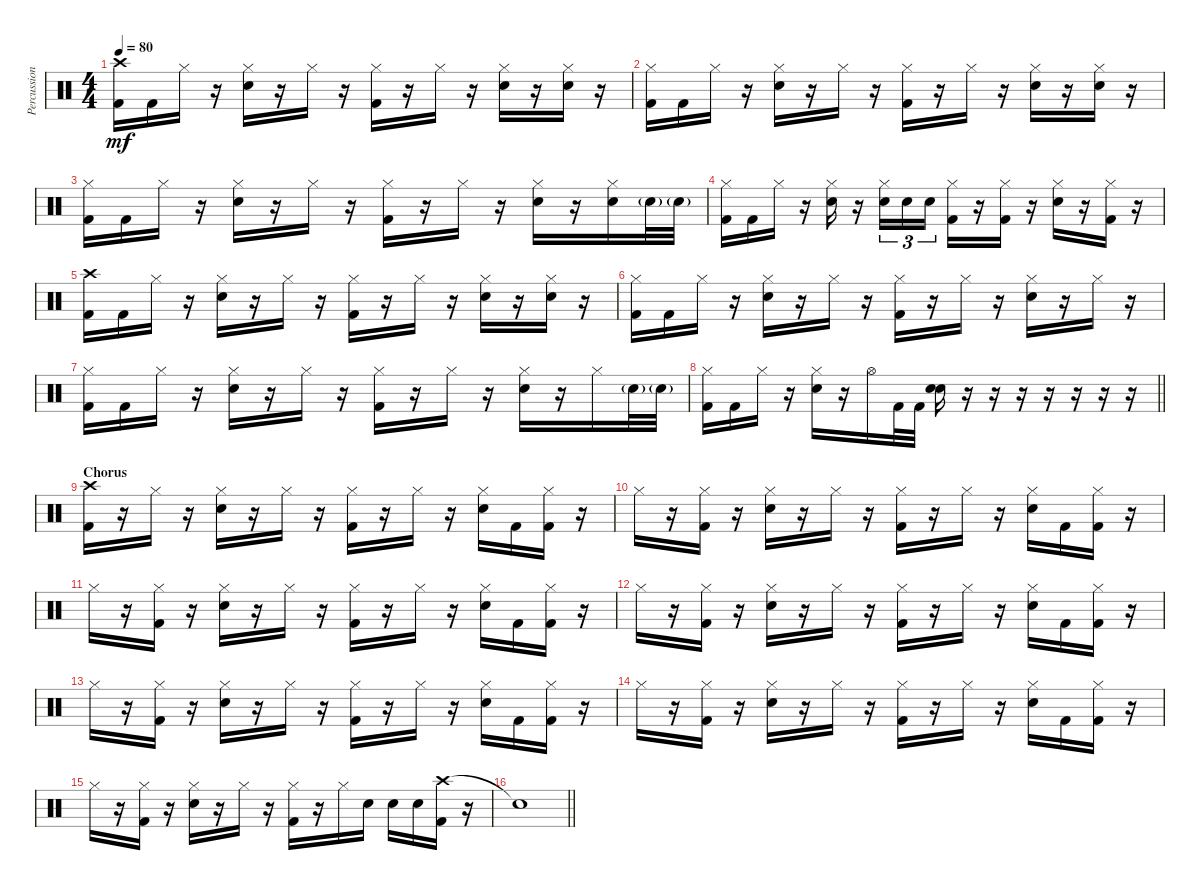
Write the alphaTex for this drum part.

\track ("Percussion" "Percussion") {instrument percussion}
\staff {score}
\articulation defaults
\ts (4 4)
\tempo 80
\clef neutral
\ks c
("Crash high (hit)" "Kick (hit) 2").16{dy mf} "Kick (hit) 2".16 "Hi-Hat (closed)".16 r.16 ("Hi-Hat (closed)" "Snare (hit) 2").16 r.16 "Hi-Hat (closed)".16 r.16 ("Hi-Hat (closed)" "Kick (hit) 2").16 r.16 "Hi-Hat (closed)".16 r.16 ("Hi-Hat (closed)" "Snare (hit) 2").16 r.16 ("Hi-Hat (closed)" "Snare (hit) 2").16 r.16 |
("Hi-Hat (closed)" "Kick (hit) 2").16 "Kick (hit) 2".16 "Hi-Hat (closed)".16 r.16 ("Hi-Hat (closed)" "Snare (hit) 2").16 r.16 "Hi-Hat (closed)".16 r.16 ("Hi-Hat (closed)" "Kick (hit) 2").16 r.16 "Hi-Hat (closed)".16 r.16 ("Hi-Hat (closed)" "Snare (hit) 2").16 r.16 ("Hi-Hat (closed)" "Snare (hit) 2").16 r.16 |
("Hi-Hat (closed)" "Kick (hit) 2").16 "Kick (hit) 2".16 "Hi-Hat (closed)".16 r.16 ("Hi-Hat (closed)" "Snare (hit) 2").16 r.16 "Hi-Hat (closed)".16 r.16 ("Hi-Hat (closed)" "Kick (hit) 2").16 r.16 "Hi-Hat (closed)".16 r.16 ("Hi-Hat (closed)" "Snare (hit) 2").16 r.16 ("Hi-Hat (closed)" "Snare (hit) 2").16 "Snare (hit) 2"{g}.32 "Snare (hit) 2"{g}.32 |
("Hi-Hat (closed)" "Kick (hit) 2").16 "Kick (hit) 2".16 "Hi-Hat (closed)".16 r.16 ("Hi-Hat (closed)" "Snare (hit) 2").16 r.16 ("Hi-Hat (closed)" "Snare (hit) 2").16{tu (3 2)} "Snare (hit) 2".16{tu (3 2)} "Snare (hit) 2".16{tu (3 2)} ("Hi-Hat (closed)" "Kick (hit) 2").16 r.16 ("Hi-Hat (closed)" "Kick (hit) 2").16 r.16 ("Hi-Hat (closed)" "Snare (hit) 2").16 r.16 ("Hi-Hat (closed)" "Kick (hit) 2").16 r.16 |
("Crash high (hit)" "Kick (hit) 2").16 "Kick (hit) 2".16 "Hi-Hat (closed)".16 r.16 ("Hi-Hat (closed)" "Snare (hit) 2").16 r.16 "Hi-Hat (closed)".16 r.16 ("Hi-Hat (closed)" "Kick (hit) 2").16 r.16 "Hi-Hat (closed)".16 r.16 ("Hi-Hat (closed)" "Snare (hit) 2").16 r.16 ("Hi-Hat (closed)" "Snare (hit) 2").16 r.16 |
("Hi-Hat (closed)" "Kick (hit) 2").16 "Kick (hit) 2".16 "Hi-Hat (closed)".16 r.16 ("Hi-Hat (closed)" "Snare (hit) 2").16 r.16 "Hi-Hat (closed)".16 r.16 ("Hi-Hat (closed)" "Kick (hit) 2").16 r.16 "Hi-Hat (closed)".16 r.16 ("Hi-Hat (closed)" "Snare (hit) 2").16 r.16 "Hi-Hat (closed)".16 r.16 |
("Hi-Hat (closed)" "Kick (hit) 2").16 "Kick (hit) 2".16 "Hi-Hat (closed)".16 r.16 ("Hi-Hat (closed)" "Snare (hit) 2").16 r.16 "Hi-Hat (closed)".16 r.16 ("Hi-Hat (closed)" "Kick (hit) 2").16 r.16 "Hi-Hat (closed)".16 r.16 ("Hi-Hat (closed)" "Snare (hit) 2").16 r.16 "Hi-Hat (closed)".16 "Snare (hit) 2"{g}.32 "Snare (hit) 2"{g}.32 |
\barLineRight lightlight
("Hi-Hat (closed)" "Kick (hit) 2").16 "Kick (hit) 2".16 "Hi-Hat (closed)".16 r.16 ("Hi-Hat (closed)" "Snare (hit) 2").16 r.16 "Hi-Hat (open)".16 "Kick (hit) 2".32 "Kick (hit) 2".32 ("Snare (hit) 2" "Snare (hit) 2").16 r.16 r.16 r.16 r.16 r.16 r.16 r.16 |
\section ("" "Chorus")
("Crash high (hit)" "Kick (hit) 2").16 r.16 "Hi-Hat (closed)".16 r.16 ("Hi-Hat (closed)" "Snare (hit) 2").16 r.16 "Hi-Hat (closed)".16 r.16 ("Hi-Hat (closed)" "Kick (hit) 2").16 r.16 "Hi-Hat (closed)".16 r.16 ("Hi-Hat (closed)" "Snare (hit) 2").16 "Kick (hit) 2".16 ("Hi-Hat (closed)" "Kick (hit) 2").16 r.16 |
"Hi-Hat (closed)".16 r.16 ("Hi-Hat (closed)" "Kick (hit) 2").16 r.16 ("Hi-Hat (closed)" "Snare (hit) 2").16 r.16 "Hi-Hat (closed)".16 r.16 ("Hi-Hat (closed)" "Kick (hit) 2").16 r.16 "Hi-Hat (closed)".16 r.16 ("Hi-Hat (closed)" "Snare (hit) 2").16 "Kick (hit) 2".16 ("Hi-Hat (closed)" "Kick (hit) 2").16 r.16 |
"Hi-Hat (closed)".16 r.16 ("Hi-Hat (closed)" "Kick (hit) 2").16 r.16 ("Hi-Hat (closed)" "Snare (hit) 2").16 r.16 "Hi-Hat (closed)".16 r.16 ("Hi-Hat (closed)" "Kick (hit) 2").16 r.16 "Hi-Hat (closed)".16 r.16 ("Hi-Hat (closed)" "Snare (hit) 2").16 "Kick (hit) 2".16 ("Hi-Hat (closed)" "Kick (hit) 2").16 r.16 |
"Hi-Hat (closed)".16 r.16 ("Hi-Hat (closed)" "Kick (hit) 2").16 r.16 ("Hi-Hat (closed)" "Snare (hit) 2").16 r.16 "Hi-Hat (closed)".16 r.16 ("Hi-Hat (closed)" "Kick (hit) 2").16 r.16 "Hi-Hat (closed)".16 r.16 ("Hi-Hat (closed)" "Snare (hit) 2").16 "Kick (hit) 2".16 ("Hi-Hat (closed)" "Kick (hit) 2").16 r.16 |
"Hi-Hat (closed)".16 r.16 ("Hi-Hat (closed)" "Kick (hit) 2").16 r.16 ("Hi-Hat (closed)" "Snare (hit) 2").16 r.16 "Hi-Hat (closed)".16 r.16 ("Hi-Hat (closed)" "Kick (hit) 2").16 r.16 "Hi-Hat (closed)".16 r.16 ("Hi-Hat (closed)" "Snare (hit) 2").16 "Kick (hit) 2".16 ("Hi-Hat (closed)" "Kick (hit) 2").16 r.16 |
"Hi-Hat (closed)".16 r.16 ("Hi-Hat (closed)" "Kick (hit) 2").16 r.16 ("Hi-Hat (closed)" "Snare (hit) 2").16 r.16 "Hi-Hat (closed)".16 r.16 ("Hi-Hat (closed)" "Kick (hit) 2").16 r.16 "Hi-Hat (closed)".16 r.16 ("Hi-Hat (closed)" "Snare (hit) 2").16 "Kick (hit) 2".16 ("Hi-Hat (closed)" "Kick (hit) 2").16 r.16 |
"Hi-Hat (closed)".16 r.16 ("Hi-Hat (closed)" "Kick (hit) 2").16 r.16 ("Hi-Hat (closed)" "Snare (hit) 2").16 r.16 "Hi-Hat (closed)".16 r.16 ("Hi-Hat (closed)" "Kick (hit) 2").16 r.16 "Hi-Hat (closed)".16 "Snare (hit) 2".16 "Snare (hit) 2".16 "Snare (hit) 2".16 ("Crash high (hit)" "Kick (hit) 2").16 r.16 |
\barLineRight lightlight "Snare (hit)"{t}.1
